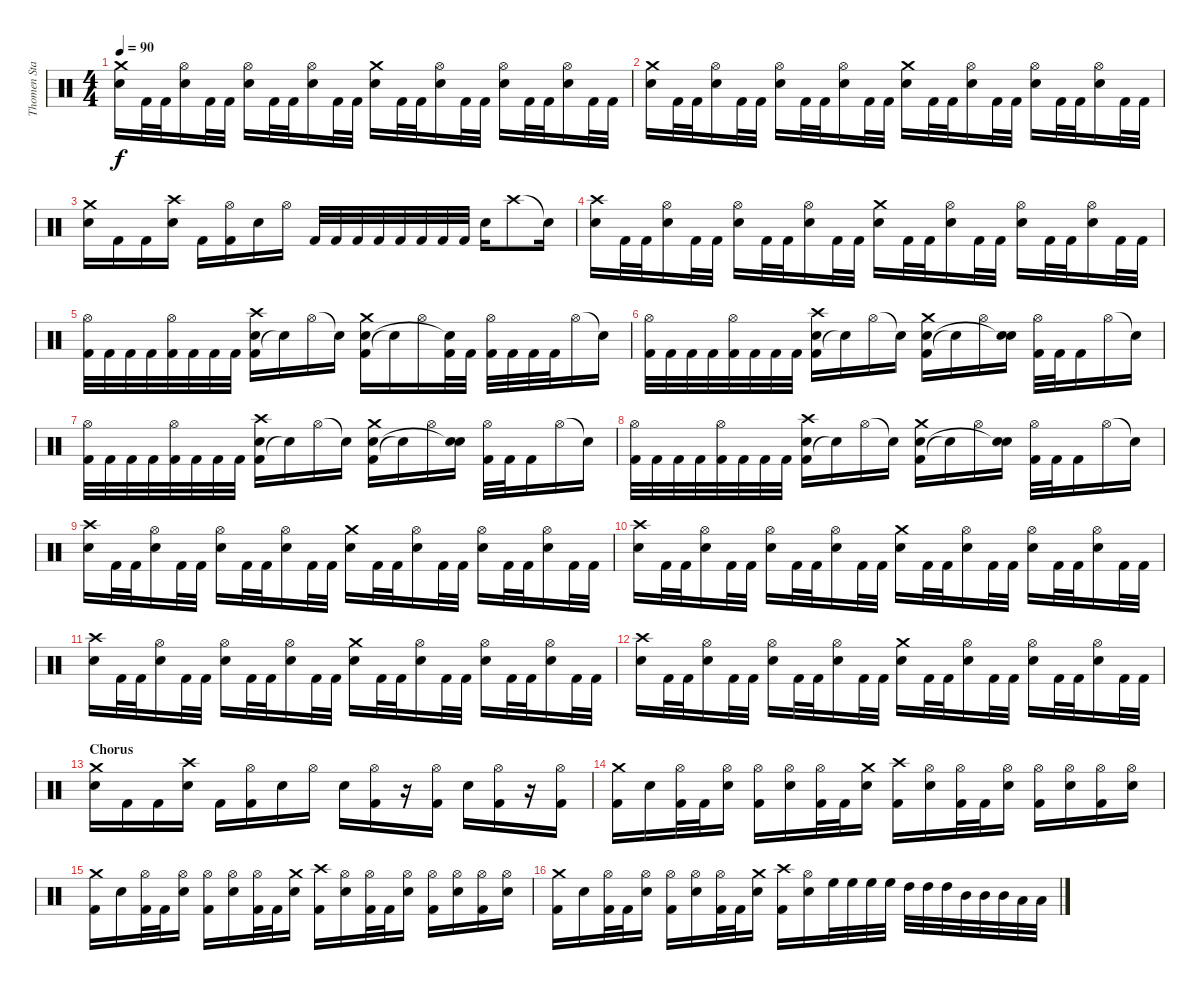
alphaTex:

\track ("Thomen Stauch" "Thomen Sta") {instrument percussion}
\staff {score}
\articulation defaults
\ts (4 4)
\tempo 90
\clef neutral
\ks c
("Snare (hit) 2" "Crash medium (hit)").16{dy f} "Kick (hit) 2".32 "Kick (hit) 2".32 ("Snare (hit) 2" "Hi-Hat (open)").16 "Kick (hit) 2".32 "Kick (hit) 2".32 ("Snare (hit) 2" "Hi-Hat (open)").16 "Kick (hit) 2".32 "Kick (hit) 2".32 ("Snare (hit) 2" "Hi-Hat (open)").16 "Kick (hit) 2".32 "Kick (hit) 2".32 ("Snare (hit) 2" "Crash medium (hit)").16 "Kick (hit) 2".32 "Kick (hit) 2".32 ("Snare (hit) 2" "Hi-Hat (open)").16 "Kick (hit) 2".32 "Kick (hit) 2".32 ("Snare (hit) 2" "Hi-Hat (open)").16 "Kick (hit) 2".32 "Kick (hit) 2".32 ("Snare (hit) 2" "Hi-Hat (open)").16 "Kick (hit) 2".32 "Kick (hit) 2".32 |
("Snare (hit) 2" "Crash medium (hit)").16 "Kick (hit) 2".32 "Kick (hit) 2".32 ("Snare (hit) 2" "Hi-Hat (open)").16 "Kick (hit) 2".32 "Kick (hit) 2".32 ("Snare (hit) 2" "Hi-Hat (open)").16 "Kick (hit) 2".32 "Kick (hit) 2".32 ("Snare (hit) 2" "Hi-Hat (open)").16 "Kick (hit) 2".32 "Kick (hit) 2".32 ("Snare (hit) 2" "Crash medium (hit)").16 "Kick (hit) 2".32 "Kick (hit) 2".32 ("Snare (hit) 2" "Hi-Hat (open)").16 "Kick (hit) 2".32 "Kick (hit) 2".32 ("Snare (hit) 2" "Hi-Hat (open)").16 "Kick (hit) 2".32 "Kick (hit) 2".32 ("Snare (hit) 2" "Hi-Hat (open)").16 "Kick (hit) 2".32 "Kick (hit) 2".32 |
("Snare (hit) 2" "Crash medium (hit)").16 "Kick (hit) 2".16 "Kick (hit) 2".16 ("Snare (hit) 2" "Crash high (hit)").16 "Kick (hit) 2".16 ("Kick (hit) 2" "Hi-Hat (open)").16 "Snare (hit) 2".16 "Hi-Hat (open)".16 "Kick (hit) 2".32 "Kick (hit) 2".32 "Kick (hit) 2".32 "Kick (hit) 2".32 "Kick (hit) 2".32 "Kick (hit) 2".32 "Kick (hit) 2".32 "Kick (hit) 2".32 "Snare (hit) 2".16 "Crash high (hit)".8 "Snare (hit)"{t}.16 |
("Snare (hit) 2" "Crash high (hit)").16 "Kick (hit) 2".32 "Kick (hit) 2".32 ("Snare (hit) 2" "Hi-Hat (open)").16 "Kick (hit) 2".32 "Kick (hit) 2".32 ("Snare (hit) 2" "Hi-Hat (open)").16 "Kick (hit) 2".32 "Kick (hit) 2".32 ("Snare (hit) 2" "Hi-Hat (open)").16 "Kick (hit) 2".32 "Kick (hit) 2".32 ("Snare (hit) 2" "Crash medium (hit)").16 "Kick (hit) 2".32 "Kick (hit) 2".32 ("Snare (hit) 2" "Hi-Hat (open)").16 "Kick (hit) 2".32 "Kick (hit) 2".32 ("Snare (hit) 2" "Hi-Hat (open)").16 "Kick (hit) 2".32 "Kick (hit) 2".32 ("Snare (hit) 2" "Hi-Hat (open)").16 "Kick (hit) 2".32 "Kick (hit) 2".32 |
("Kick (hit) 2" "Hi-Hat (open)").32 "Kick (hit) 2".32 "Kick (hit) 2".32 "Kick (hit) 2".32 ("Kick (hit) 2" "Hi-Hat (open)").32 "Kick (hit) 2".32 "Kick (hit) 2".32 "Kick (hit) 2".32 ("Kick (hit) 2" "Snare (hit) 2" "Crash high (hit)").16 "Snare (hit)"{t}.16 "Hi-Hat (open)".16 "Snare (hit)"{t}.16 ("Kick (hit) 2" "Snare (hit) 2" "Crash medium (hit)").16 "Snare (hit)"{t}.16 "Hi-Hat (open)".16 ("Kick (hit) 2" "Snare (hit)"{t}).32 "Kick (hit) 2".32 ("Kick (hit) 2" "Hi-Hat (open)").32 "Kick (hit) 2".32 "Kick (hit) 2".32 "Kick (hit) 2".32 "Hi-Hat (open)".16 "Snare (hit)"{t}.16 |
("Kick (hit) 2" "Hi-Hat (open)").32 "Kick (hit) 2".32 "Kick (hit) 2".32 "Kick (hit) 2".32 ("Kick (hit) 2" "Hi-Hat (open)").32 "Kick (hit) 2".32 "Kick (hit) 2".32 "Kick (hit) 2".32 ("Kick (hit) 2" "Snare (hit) 2" "Crash high (hit)").16 "Snare (hit)"{t}.16 "Hi-Hat (open)".16 "Snare (hit)"{t}.16 ("Kick (hit) 2" "Snare (hit) 2" "Crash medium (hit)").16 "Snare (hit)"{t}.16 "Hi-Hat (open)".16 ("Snare (hit) 2" "Snare (hit)"{t}).16 ("Kick (hit) 2" "Hi-Hat (open)").32 "Kick (hit) 2".32 "Kick (hit) 2".16 "Hi-Hat (open)".16 "Snare (hit)"{t}.16 |
("Kick (hit) 2" "Hi-Hat (open)").32 "Kick (hit) 2".32 "Kick (hit) 2".32 "Kick (hit) 2".32 ("Kick (hit) 2" "Hi-Hat (open)").32 "Kick (hit) 2".32 "Kick (hit) 2".32 "Kick (hit) 2".32 ("Kick (hit) 2" "Snare (hit) 2" "Crash high (hit)").16 "Snare (hit)"{t}.16 "Hi-Hat (open)".16 "Snare (hit)"{t}.16 ("Kick (hit) 2" "Snare (hit) 2" "Crash medium (hit)").16 "Snare (hit)"{t}.16 "Hi-Hat (open)".16 ("Snare (hit) 2" "Snare (hit)"{t}).16 ("Kick (hit) 2" "Hi-Hat (open)").32 "Kick (hit) 2".32 "Kick (hit) 2".16 "Hi-Hat (open)".16 "Snare (hit)"{t}.16 |
("Kick (hit) 2" "Hi-Hat (open)").32 "Kick (hit) 2".32 "Kick (hit) 2".32 "Kick (hit) 2".32 ("Kick (hit) 2" "Hi-Hat (open)").32 "Kick (hit) 2".32 "Kick (hit) 2".32 "Kick (hit) 2".32 ("Kick (hit) 2" "Snare (hit) 2" "Crash high (hit)").16 "Snare (hit)"{t}.16 "Hi-Hat (open)".16 "Snare (hit)"{t}.16 ("Kick (hit) 2" "Snare (hit) 2" "Crash medium (hit)").16 "Snare (hit)"{t}.16 "Hi-Hat (open)".16 ("Snare (hit) 2" "Snare (hit)"{t}).16 ("Kick (hit) 2" "Hi-Hat (open)").32 "Kick (hit) 2".32 "Kick (hit) 2".16 "Hi-Hat (open)".16 "Snare (hit)"{t}.16 |
("Snare (hit) 2" "Crash high (hit)").16 "Kick (hit) 2".32 "Kick (hit) 2".32 ("Snare (hit) 2" "Hi-Hat (open)").16 "Kick (hit) 2".32 "Kick (hit) 2".32 ("Snare (hit) 2" "Hi-Hat (open)").16 "Kick (hit) 2".32 "Kick (hit) 2".32 ("Snare (hit) 2" "Hi-Hat (open)").16 "Kick (hit) 2".32 "Kick (hit) 2".32 ("Snare (hit) 2" "Crash medium (hit)").16 "Kick (hit) 2".32 "Kick (hit) 2".32 ("Snare (hit) 2" "Hi-Hat (open)").16 "Kick (hit) 2".32 "Kick (hit) 2".32 ("Snare (hit) 2" "Hi-Hat (open)").16 "Kick (hit) 2".32 "Kick (hit) 2".32 ("Snare (hit) 2" "Hi-Hat (open)").16 "Kick (hit) 2".32 "Kick (hit) 2".32 |
("Snare (hit) 2" "Crash high (hit)").16 "Kick (hit) 2".32 "Kick (hit) 2".32 ("Snare (hit) 2" "Hi-Hat (open)").16 "Kick (hit) 2".32 "Kick (hit) 2".32 ("Snare (hit) 2" "Hi-Hat (open)").16 "Kick (hit) 2".32 "Kick (hit) 2".32 ("Snare (hit) 2" "Hi-Hat (open)").16 "Kick (hit) 2".32 "Kick (hit) 2".32 ("Snare (hit) 2" "Crash medium (hit)").16 "Kick (hit) 2".32 "Kick (hit) 2".32 ("Snare (hit) 2" "Hi-Hat (open)").16 "Kick (hit) 2".32 "Kick (hit) 2".32 ("Snare (hit) 2" "Hi-Hat (open)").16 "Kick (hit) 2".32 "Kick (hit) 2".32 ("Snare (hit) 2" "Hi-Hat (open)").16 "Kick (hit) 2".32 "Kick (hit) 2".32 |
("Snare (hit) 2" "Crash high (hit)").16 "Kick (hit) 2".32 "Kick (hit) 2".32 ("Snare (hit) 2" "Hi-Hat (open)").16 "Kick (hit) 2".32 "Kick (hit) 2".32 ("Snare (hit) 2" "Hi-Hat (open)").16 "Kick (hit) 2".32 "Kick (hit) 2".32 ("Snare (hit) 2" "Hi-Hat (open)").16 "Kick (hit) 2".32 "Kick (hit) 2".32 ("Snare (hit) 2" "Crash medium (hit)").16 "Kick (hit) 2".32 "Kick (hit) 2".32 ("Snare (hit) 2" "Hi-Hat (open)").16 "Kick (hit) 2".32 "Kick (hit) 2".32 ("Snare (hit) 2" "Hi-Hat (open)").16 "Kick (hit) 2".32 "Kick (hit) 2".32 ("Snare (hit) 2" "Hi-Hat (open)").16 "Kick (hit) 2".32 "Kick (hit) 2".32 |
("Snare (hit) 2" "Crash high (hit)").16 "Kick (hit) 2".32 "Kick (hit) 2".32 ("Snare (hit) 2" "Hi-Hat (open)").16 "Kick (hit) 2".32 "Kick (hit) 2".32 ("Snare (hit) 2" "Hi-Hat (open)").16 "Kick (hit) 2".32 "Kick (hit) 2".32 ("Snare (hit) 2" "Hi-Hat (open)").16 "Kick (hit) 2".32 "Kick (hit) 2".32 ("Snare (hit) 2" "Crash medium (hit)").16 "Kick (hit) 2".32 "Kick (hit) 2".32 ("Snare (hit) 2" "Hi-Hat (open)").16 "Kick (hit) 2".32 "Kick (hit) 2".32 ("Snare (hit) 2" "Hi-Hat (open)").16 "Kick (hit) 2".32 "Kick (hit) 2".32 ("Snare (hit) 2" "Hi-Hat (open)").16 "Kick (hit) 2".32 "Kick (hit) 2".32 |
\section ("" "Chorus")
("Snare (hit) 2" "Crash medium (hit)").16 "Kick (hit) 2".16 "Kick (hit) 2".16 ("Snare (hit) 2" "Crash high (hit)").16 "Kick (hit) 2".16 ("Kick (hit) 2" "Hi-Hat (open)").16 "Snare (hit) 2".16 "Hi-Hat (open)".16 "Snare (hit) 2".16 ("Kick (hit) 2" "Hi-Hat (open)").16 r.16 ("Kick (hit) 2" "Hi-Hat (open)").16 "Snare (hit) 2".16 ("Kick (hit) 2" "Hi-Hat (open)").16 r.16 ("Kick (hit) 2" "Hi-Hat (open)").16 |
("Kick (hit) 2" "Crash medium (hit)").16 "Snare (hit) 2".16 ("Kick (hit) 2" "Hi-Hat (open)").32 "Kick (hit) 2".32 ("Snare (hit) 2" "Hi-Hat (open)").16 ("Kick (hit) 2" "Hi-Hat (open)").16 ("Snare (hit) 2" "Hi-Hat (open)").16 ("Kick (hit) 2" "Hi-Hat (open)").32 "Kick (hit) 2".32 ("Snare (hit) 2" "Crash medium (hit)").16 ("Kick (hit) 2" "Crash high (hit)").16 ("Snare (hit) 2" "Hi-Hat (open)").16 ("Kick (hit) 2" "Hi-Hat (open)").32 "Kick (hit) 2".32 ("Snare (hit) 2" "Hi-Hat (open)").16 ("Kick (hit) 2" "Hi-Hat (open)").16 ("Snare (hit) 2" "Hi-Hat (open)").16 ("Kick (hit) 2" "Hi-Hat (open)").16 ("Snare (hit) 2" "Hi-Hat (open)").16 |
("Kick (hit) 2" "Crash medium (hit)").16 "Snare (hit) 2".16 ("Kick (hit) 2" "Hi-Hat (open)").32 "Kick (hit) 2".32 ("Snare (hit) 2" "Hi-Hat (open)").16 ("Kick (hit) 2" "Hi-Hat (open)").16 ("Snare (hit) 2" "Hi-Hat (open)").16 ("Kick (hit) 2" "Hi-Hat (open)").32 "Kick (hit) 2".32 ("Snare (hit) 2" "Crash medium (hit)").16 ("Kick (hit) 2" "Crash high (hit)").16 ("Snare (hit) 2" "Hi-Hat (open)").16 ("Kick (hit) 2" "Hi-Hat (open)").32 "Kick (hit) 2".32 ("Snare (hit) 2" "Hi-Hat (open)").16 ("Kick (hit) 2" "Hi-Hat (open)").16 ("Snare (hit) 2" "Hi-Hat (open)").16 ("Kick (hit) 2" "Hi-Hat (open)").16 ("Snare (hit) 2" "Hi-Hat (open)").16 |
("Kick (hit) 2" "Crash medium (hit)").16 "Snare (hit) 2".16 ("Kick (hit) 2" "Hi-Hat (open)").32 "Kick (hit) 2".32 ("Snare (hit) 2" "Hi-Hat (open)").16 ("Kick (hit) 2" "Hi-Hat (open)").16 ("Snare (hit) 2" "Hi-Hat (open)").16 ("Kick (hit) 2" "Hi-Hat (open)").32 "Kick (hit) 2".32 ("Snare (hit) 2" "Crash medium (hit)").16 ("Kick (hit) 2" "Crash high (hit)").16 ("Snare (hit) 2" "Hi-Hat (open)").16 "High Floor Tom (hit)".32 "High Floor Tom (hit)".32 "High Floor Tom (hit)".32 "High Floor Tom (hit)".32 "High Tom (hit)".32 "High Tom (hit)".32 "High Tom (hit)".32 "Mid Tom (hit)".32 "Mid Tom (hit)".32 "Mid Tom (hit)".32 "Low Tom (hit)".32 "Low Tom (hit)".32
